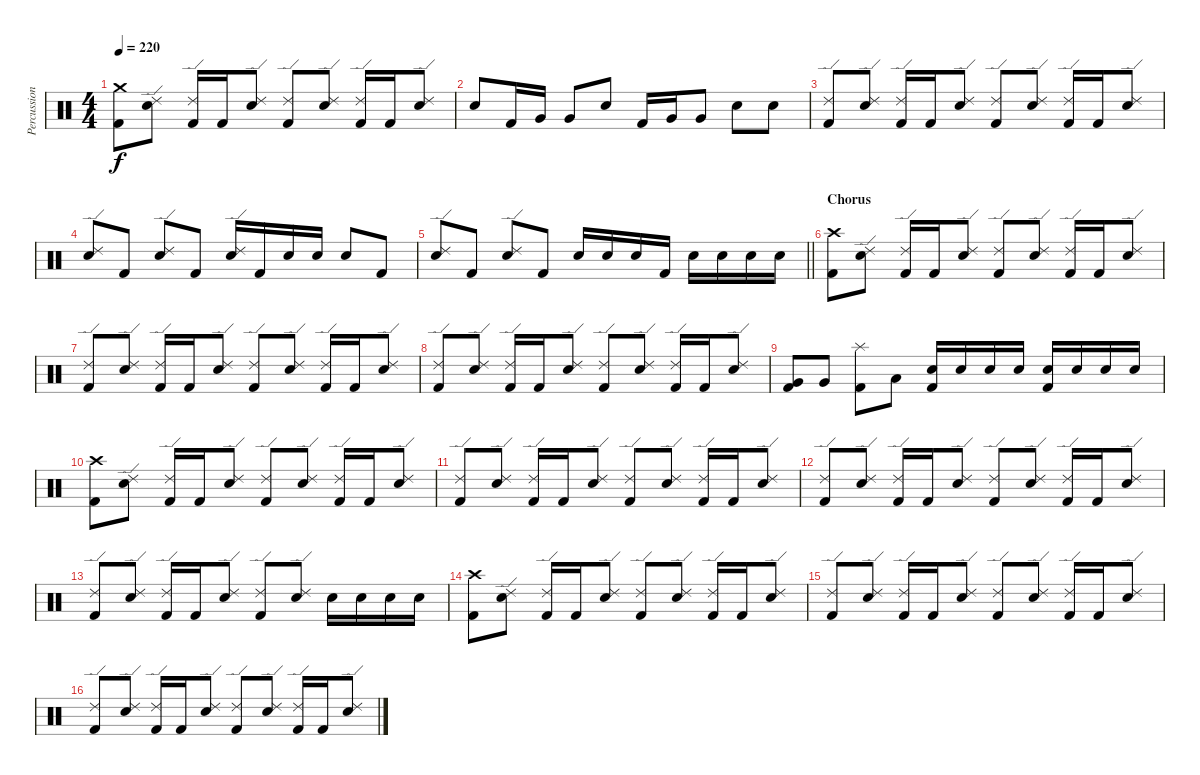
\track ("Percussion" "Percussion") {instrument percussion}
\staff {score}
\articulation defaults
\ts (4 4)
\tempo 220
\clef neutral
\ks c
("Crash medium (hit)" "Kick (hit) 2").8{dy f} ("Ride (edge) 2" "Snare (hit) 2").8 ("Ride (edge) 2" "Kick (hit) 2").16 "Kick (hit) 2".16 ("Ride (edge) 2" "Snare (hit) 2").8 ("Ride (edge) 2" "Kick (hit) 2").8 ("Ride (edge) 2" "Snare (hit) 2").8 ("Ride (edge) 2" "Kick (hit) 2").16 "Kick (hit) 2".16 ("Ride (edge) 2" "Snare (hit) 2").8 |
"Snare (hit) 2".8 "Kick (hit) 2".16 "Very Low Tom (hit)".16 "Very Low Tom (hit)".8 "Snare (hit) 2".8 "Kick (hit) 2".16 "Very Low Tom (hit)".16 "Very Low Tom (hit)".8 "Snare (hit) 2".8 "Snare (hit) 2".8 |
("Ride (edge) 2" "Kick (hit) 2").8 ("Ride (edge) 2" "Snare (hit) 2").8 ("Ride (edge) 2" "Kick (hit) 2").16 "Kick (hit) 2".16 ("Ride (edge) 2" "Snare (hit) 2").8 ("Ride (edge) 2" "Kick (hit) 2").8 ("Ride (edge) 2" "Snare (hit) 2").8 ("Ride (edge) 2" "Kick (hit) 2").16 "Kick (hit) 2".16 ("Ride (edge) 2" "Snare (hit) 2").8 |
("Ride (edge) 2" "Snare (hit) 2").8 "Kick (hit) 2".8 ("Ride (edge) 2" "Snare (hit) 2").8 "Kick (hit) 2".8 ("Ride (edge) 2" "Snare (hit) 2").16 "Kick (hit) 2".16 "Snare (hit) 2".16 "Snare (hit) 2".16 "Snare (hit) 2".8 "Kick (hit) 2".8 |
\barLineRight lightlight
("Ride (edge) 2" "Snare (hit) 2").8 "Kick (hit) 2".8 ("Ride (edge) 2" "Snare (hit) 2").8 "Kick (hit) 2".8 "Snare (hit) 2".16 "Snare (hit) 2".16 "Snare (hit) 2".16 "Kick (hit) 2".16 "Snare (hit) 2".16 "Snare (hit) 2".16 "Snare (hit) 2".16 "Snare (hit) 2".16 |
\section ("" "Chorus")
("Crash high (hit)" "Kick (hit) 2").8 ("Ride (edge) 2" "Snare (hit) 2").8 ("Ride (edge) 2" "Kick (hit) 2").16 "Kick (hit) 2".16 ("Ride (edge) 2" "Snare (hit) 2").8 ("Ride (edge) 2" "Kick (hit) 2").8 ("Ride (edge) 2" "Snare (hit) 2").8 ("Ride (edge) 2" "Kick (hit) 2").16 "Kick (hit) 2".16 ("Ride (edge) 2" "Snare (hit) 2").8 |
("Ride (edge) 2" "Kick (hit) 2").8 ("Ride (edge) 2" "Snare (hit) 2").8 ("Ride (edge) 2" "Kick (hit) 2").16 "Kick (hit) 2".16 ("Ride (edge) 2" "Snare (hit) 2").8 ("Ride (edge) 2" "Kick (hit) 2").8 ("Ride (edge) 2" "Snare (hit) 2").8 ("Ride (edge) 2" "Kick (hit) 2").16 "Kick (hit) 2".16 ("Ride (edge) 2" "Snare (hit) 2").8 |
("Ride (edge) 2" "Kick (hit) 2").8 ("Ride (edge) 2" "Snare (hit) 2").8 ("Ride (edge) 2" "Kick (hit) 2").16 "Kick (hit) 2".16 ("Ride (edge) 2" "Snare (hit) 2").8 ("Ride (edge) 2" "Kick (hit) 2").8 ("Ride (edge) 2" "Snare (hit) 2").8 ("Ride (edge) 2" "Kick (hit) 2").16 "Kick (hit) 2".16 ("Ride (edge) 2" "Snare (hit) 2").8 |
("Very Low Tom (hit)" "Kick (hit) 2").8 "Very Low Tom (hit)".8 ("Splash (hit)" "Kick (hit) 2").8 "Low Floor Tom (hit)".8 ("Snare (hit) 2" "Kick (hit) 2").16 "Snare (hit) 2".16 "Snare (hit) 2".16 "Snare (hit) 2".16 ("Snare (hit) 2" "Kick (hit) 2").16 "Snare (hit) 2".16 "Snare (hit) 2".16 "Snare (hit) 2".16 |
("Crash high (hit)" "Kick (hit) 2").8 ("Ride (edge) 2" "Snare (hit) 2").8 ("Ride (edge) 2" "Kick (hit) 2").16 "Kick (hit) 2".16 ("Ride (edge) 2" "Snare (hit) 2").8 ("Ride (edge) 2" "Kick (hit) 2").8 ("Ride (edge) 2" "Snare (hit) 2").8 ("Ride (edge) 2" "Kick (hit) 2").16 "Kick (hit) 2".16 ("Ride (edge) 2" "Snare (hit) 2").8 |
("Ride (edge) 2" "Kick (hit) 2").8 ("Ride (edge) 2" "Snare (hit) 2").8 ("Ride (edge) 2" "Kick (hit) 2").16 "Kick (hit) 2".16 ("Ride (edge) 2" "Snare (hit) 2").8 ("Ride (edge) 2" "Kick (hit) 2").8 ("Ride (edge) 2" "Snare (hit) 2").8 ("Ride (edge) 2" "Kick (hit) 2").16 "Kick (hit) 2".16 ("Ride (edge) 2" "Snare (hit) 2").8 |
("Ride (edge) 2" "Kick (hit) 2").8 ("Ride (edge) 2" "Snare (hit) 2").8 ("Ride (edge) 2" "Kick (hit) 2").16 "Kick (hit) 2".16 ("Ride (edge) 2" "Snare (hit) 2").8 ("Ride (edge) 2" "Kick (hit) 2").8 ("Ride (edge) 2" "Snare (hit) 2").8 ("Ride (edge) 2" "Kick (hit) 2").16 "Kick (hit) 2".16 ("Ride (edge) 2" "Snare (hit) 2").8 |
("Ride (edge) 2" "Kick (hit) 2").8 ("Ride (edge) 2" "Snare (hit) 2").8 ("Ride (edge) 2" "Kick (hit) 2").16 "Kick (hit) 2".16 ("Ride (edge) 2" "Snare (hit) 2").8 ("Ride (edge) 2" "Kick (hit) 2").8 ("Ride (edge) 2" "Snare (hit) 2").8 "Snare (hit) 2".16 "Snare (hit) 2".16 "Snare (hit) 2".16 "Snare (hit) 2".16 |
("Crash high (hit)" "Kick (hit) 2").8 ("Ride (edge) 2" "Snare (hit) 2").8 ("Ride (edge) 2" "Kick (hit) 2").16 "Kick (hit) 2".16 ("Ride (edge) 2" "Snare (hit) 2").8 ("Ride (edge) 2" "Kick (hit) 2").8 ("Ride (edge) 2" "Snare (hit) 2").8 ("Ride (edge) 2" "Kick (hit) 2").16 "Kick (hit) 2".16 ("Ride (edge) 2" "Snare (hit) 2").8 |
("Ride (edge) 2" "Kick (hit) 2").8 ("Ride (edge) 2" "Snare (hit) 2").8 ("Ride (edge) 2" "Kick (hit) 2").16 "Kick (hit) 2".16 ("Ride (edge) 2" "Snare (hit) 2").8 ("Ride (edge) 2" "Kick (hit) 2").8 ("Ride (edge) 2" "Snare (hit) 2").8 ("Ride (edge) 2" "Kick (hit) 2").16 "Kick (hit) 2".16 ("Ride (edge) 2" "Snare (hit) 2").8 |
("Ride (edge) 2" "Kick (hit) 2").8 ("Ride (edge) 2" "Snare (hit) 2").8 ("Ride (edge) 2" "Kick (hit) 2").16 "Kick (hit) 2".16 ("Ride (edge) 2" "Snare (hit) 2").8 ("Ride (edge) 2" "Kick (hit) 2").8 ("Ride (edge) 2" "Snare (hit) 2").8 ("Ride (edge) 2" "Kick (hit) 2").16 "Kick (hit) 2".16 ("Ride (edge) 2" "Snare (hit) 2").8
